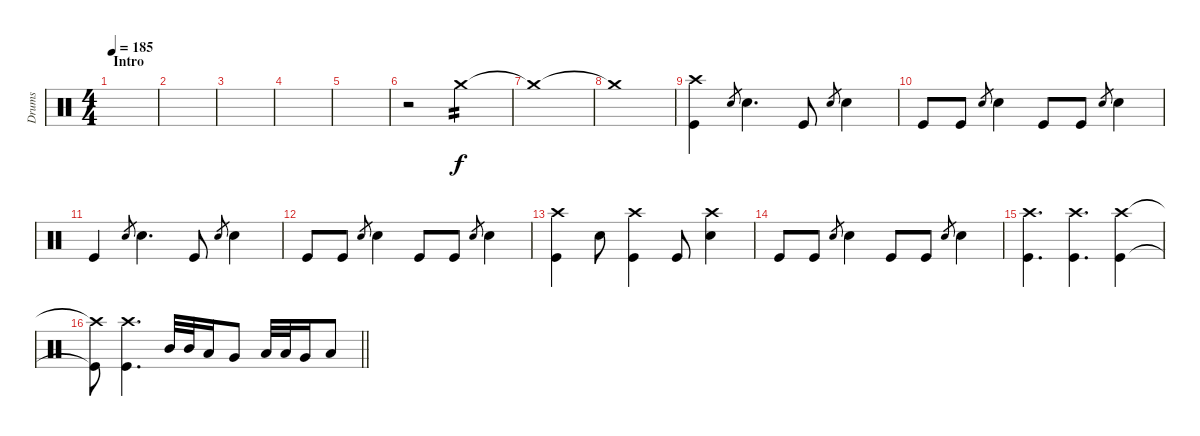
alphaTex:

\track ("Drums" "Drums") {instrument percussion}
\staff {score}
\articulation defaults
\ts (4 4)
\section ("" "Intro")
\tempo 185
\clef neutral
\ks c
|
|
|
|
|
r.2{volume 5} "Crash medium (hit)".2{tp 2 volume 12} |
"Crash medium (hit)"{t}.1 |
"Crash medium (hit)"{t}.1 |
("Crash high (hit)" "Kick (hit)").4 "Snare (hit) 2".8{gr} "Snare (hit) 2".4{d} "Kick (hit)".8 "Snare (hit) 2".8{gr} "Snare (hit) 2".4 |
"Kick (hit)".8 "Kick (hit)".8 "Snare (hit) 2".8{gr} "Snare (hit) 2".4 "Kick (hit)".8 "Kick (hit)".8 "Snare (hit) 2".8{gr} "Snare (hit) 2".4 |
"Kick (hit)".4 "Snare (hit) 2".8{gr} "Snare (hit) 2".4{d} "Kick (hit)".8 "Snare (hit) 2".8{gr} "Snare (hit) 2".4 |
"Kick (hit)".8 "Kick (hit)".8 "Snare (hit) 2".8{gr} "Snare (hit) 2".4 "Kick (hit)".8 "Kick (hit)".8 "Snare (hit) 2".8{gr} "Snare (hit) 2".4 |
("Crash high (hit)" "Kick (hit)").4 "Snare (hit) 2".8 ("Crash high (hit)" "Kick (hit)").4 "Kick (hit)".8 ("Crash high (hit)" "Snare (hit) 2").4 |
"Kick (hit)".8 "Kick (hit)".8 "Snare (hit) 2".8{gr} "Snare (hit) 2".4 "Kick (hit)".8 "Kick (hit)".8 "Snare (hit) 2".8{gr} "Snare (hit) 2".4 |
("Crash high (hit)" "Kick (hit)").4{d} ("Crash high (hit)" "Kick (hit)").4{d} ("Crash high (hit)" "Kick (hit)").4 |
\barLineRight lightlight
("Crash high (hit)"{t} "Kick (hit)"{t}).8 ("Crash high (hit)" "Kick (hit)").4{d} "Mid Tom (hit)".32 "Mid Tom (hit)".32 "Low Tom (hit)".16 "Very Low Tom (hit)".8 "Low Tom (hit)".32 "Low Tom (hit)".32 "Very Low Tom (hit)".16 "Low Floor Tom (hit)".8
